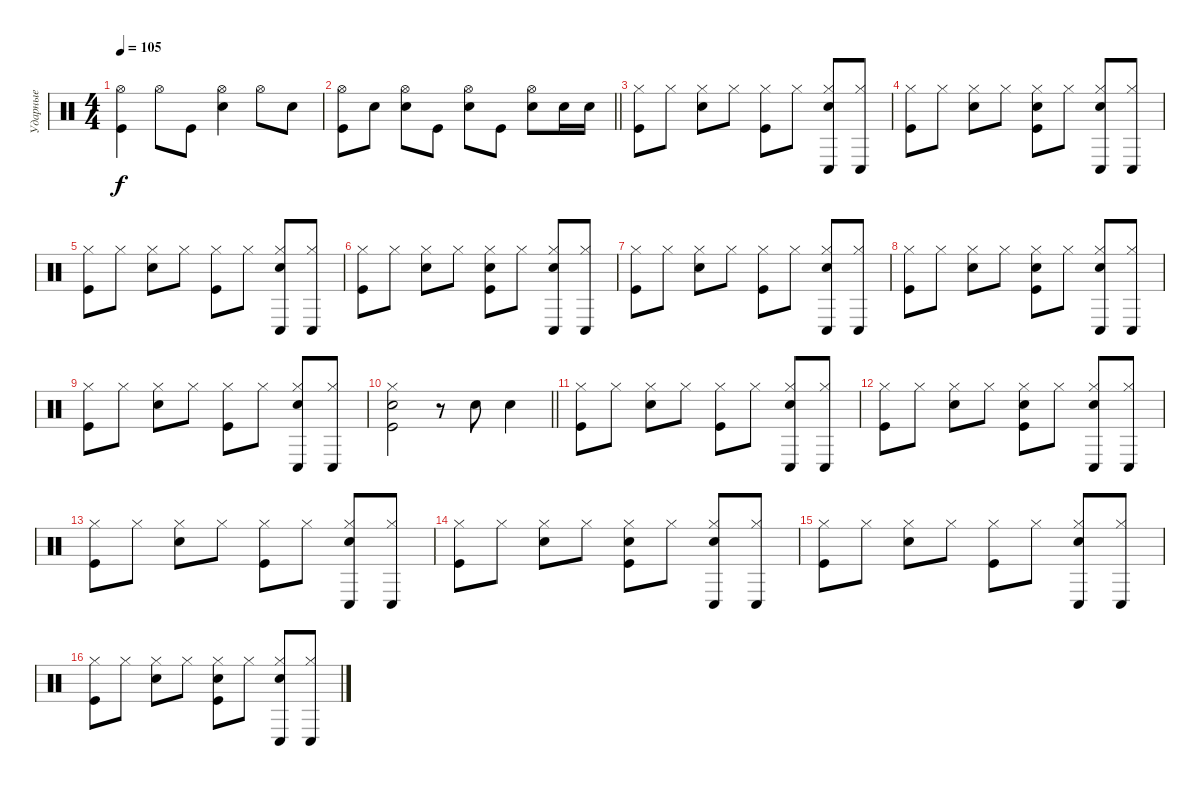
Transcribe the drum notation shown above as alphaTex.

\track ("Ударные" "Ударные") {instrument percussion}
\staff {score}
\articulation defaults
\ts (4 4)
\tempo 105
\clef neutral
\ks c
("Kick (hit)" "Hi-Hat (open)").4{dy f} "Hi-Hat (open)".8 "Kick (hit)".8 ("Hi-Hat (open)" "Snare (hit) 2").4 "Hi-Hat (open)".8 "Snare (hit) 2".8 |
\barLineRight lightlight
("Kick (hit)" "Hi-Hat (open)").8 "Snare (hit) 2".8 ("Snare (hit) 2" "Hi-Hat (open)").8 "Kick (hit)".8 ("Snare (hit) 2" "Hi-Hat (open)").8 "Kick (hit)".8 ("Snare (hit) 2" "Hi-Hat (open)").8 "Snare (hit) 2".16 "Snare (hit) 2".16 |
("Kick (hit)" "Hi-Hat (closed)").8 "Hi-Hat (closed)".8 ("Snare (hit) 2" "Hi-Hat (closed)").8 "Hi-Hat (closed)".8 ("Hi-Hat (closed)" "Kick (hit)").8 "Hi-Hat (closed)".8 ("Hi-Hat (closed)" "Conga low (hit)" "Snare (hit) 2").8 ("Hi-Hat (closed)" "Conga low (hit)").8 |
("Kick (hit)" "Hi-Hat (closed)").8 "Hi-Hat (closed)".8 ("Snare (hit) 2" "Hi-Hat (closed)").8 "Hi-Hat (closed)".8 ("Hi-Hat (closed)" "Kick (hit)" "Snare (hit) 2").8 "Hi-Hat (closed)".8 ("Hi-Hat (closed)" "Conga low (hit)" "Snare (hit) 2").8 ("Hi-Hat (closed)" "Conga low (hit)").8 |
("Kick (hit)" "Hi-Hat (closed)").8 "Hi-Hat (closed)".8 ("Snare (hit) 2" "Hi-Hat (closed)").8 "Hi-Hat (closed)".8 ("Hi-Hat (closed)" "Kick (hit)").8 "Hi-Hat (closed)".8 ("Hi-Hat (closed)" "Conga low (hit)" "Snare (hit) 2").8 ("Hi-Hat (closed)" "Conga low (hit)").8 |
("Kick (hit)" "Hi-Hat (closed)").8 "Hi-Hat (closed)".8 ("Snare (hit) 2" "Hi-Hat (closed)").8 "Hi-Hat (closed)".8 ("Hi-Hat (closed)" "Kick (hit)" "Snare (hit) 2").8 "Hi-Hat (closed)".8 ("Hi-Hat (closed)" "Conga low (hit)" "Snare (hit) 2").8 ("Hi-Hat (closed)" "Conga low (hit)").8 |
("Kick (hit)" "Hi-Hat (closed)").8 "Hi-Hat (closed)".8 ("Snare (hit) 2" "Hi-Hat (closed)").8 "Hi-Hat (closed)".8 ("Hi-Hat (closed)" "Kick (hit)").8 "Hi-Hat (closed)".8 ("Hi-Hat (closed)" "Conga low (hit)" "Snare (hit) 2").8 ("Hi-Hat (closed)" "Conga low (hit)").8 |
("Kick (hit)" "Hi-Hat (closed)").8 "Hi-Hat (closed)".8 ("Snare (hit) 2" "Hi-Hat (closed)").8 "Hi-Hat (closed)".8 ("Hi-Hat (closed)" "Kick (hit)" "Snare (hit) 2").8 "Hi-Hat (closed)".8 ("Hi-Hat (closed)" "Conga low (hit)" "Snare (hit) 2").8 ("Hi-Hat (closed)" "Conga low (hit)").8 |
("Kick (hit)" "Hi-Hat (closed)").8 "Hi-Hat (closed)".8 ("Snare (hit) 2" "Hi-Hat (closed)").8 "Hi-Hat (closed)".8 ("Hi-Hat (closed)" "Kick (hit)").8 "Hi-Hat (closed)".8 ("Hi-Hat (closed)" "Conga low (hit)" "Snare (hit) 2").8 ("Hi-Hat (closed)" "Conga low (hit)").8 |
\barLineRight lightlight
("Kick (hit)" "Hi-Hat (closed)" "Snare (hit) 2").2 r.8 "Snare (hit) 2".8 "Snare (hit) 2".4 |
("Kick (hit)" "Hi-Hat (closed)").8 "Hi-Hat (closed)".8 ("Snare (hit) 2" "Hi-Hat (closed)").8 "Hi-Hat (closed)".8 ("Hi-Hat (closed)" "Kick (hit)").8 "Hi-Hat (closed)".8 ("Hi-Hat (closed)" "Conga low (hit)" "Snare (hit) 2").8 ("Hi-Hat (closed)" "Conga low (hit)").8 |
("Kick (hit)" "Hi-Hat (closed)").8 "Hi-Hat (closed)".8 ("Snare (hit) 2" "Hi-Hat (closed)").8 "Hi-Hat (closed)".8 ("Hi-Hat (closed)" "Kick (hit)" "Snare (hit) 2").8 "Hi-Hat (closed)".8 ("Hi-Hat (closed)" "Conga low (hit)" "Snare (hit) 2").8 ("Hi-Hat (closed)" "Conga low (hit)").8 |
("Kick (hit)" "Hi-Hat (closed)").8 "Hi-Hat (closed)".8 ("Snare (hit) 2" "Hi-Hat (closed)").8 "Hi-Hat (closed)".8 ("Hi-Hat (closed)" "Kick (hit)").8 "Hi-Hat (closed)".8 ("Hi-Hat (closed)" "Conga low (hit)" "Snare (hit) 2").8 ("Hi-Hat (closed)" "Conga low (hit)").8 |
("Kick (hit)" "Hi-Hat (closed)").8 "Hi-Hat (closed)".8 ("Snare (hit) 2" "Hi-Hat (closed)").8 "Hi-Hat (closed)".8 ("Hi-Hat (closed)" "Kick (hit)" "Snare (hit) 2").8 "Hi-Hat (closed)".8 ("Hi-Hat (closed)" "Conga low (hit)" "Snare (hit) 2").8 ("Hi-Hat (closed)" "Conga low (hit)").8 |
("Kick (hit)" "Hi-Hat (closed)").8 "Hi-Hat (closed)".8 ("Snare (hit) 2" "Hi-Hat (closed)").8 "Hi-Hat (closed)".8 ("Hi-Hat (closed)" "Kick (hit)").8 "Hi-Hat (closed)".8 ("Hi-Hat (closed)" "Conga low (hit)" "Snare (hit) 2").8 ("Hi-Hat (closed)" "Conga low (hit)").8 |
("Kick (hit)" "Hi-Hat (closed)").8 "Hi-Hat (closed)".8 ("Snare (hit) 2" "Hi-Hat (closed)").8 "Hi-Hat (closed)".8 ("Hi-Hat (closed)" "Kick (hit)" "Snare (hit) 2").8 "Hi-Hat (closed)".8 ("Hi-Hat (closed)" "Conga low (hit)" "Snare (hit) 2").8 ("Hi-Hat (closed)" "Conga low (hit)").8
